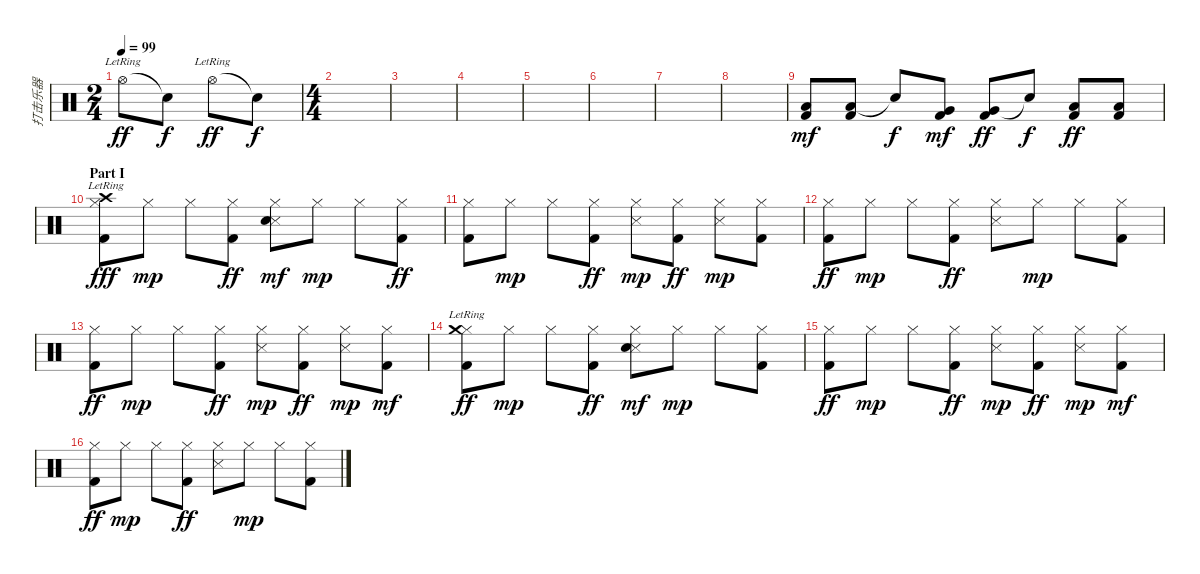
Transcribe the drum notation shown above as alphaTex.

\track ("打击乐器" "打击乐器") {instrument percussion}
\staff {score}
\articulation defaults
\ts (2 4)
\tempo 99
\clef neutral
\ks c "Hi-Hat (open)"{lr}.8{dy ff} "Snare (hit)"{t}.8{dy f} "Hi-Hat (open)"{lr}.8{dy ff} "Snare (hit)"{t}.8{dy f}
|
\ts (4 4)
|
|
|
|
|
|
|
("Low Floor Tom (hit)" "Kick (hit) 2").8{dy mf} ("Low Floor Tom (hit)" "Kick (hit) 2").8 "Snare (hit)"{t}.8{dy f} ("Very Low Tom (hit)" "Kick (hit) 2").8{dy mf} ("Very Low Tom (hit)" "Kick (hit) 2").8{dy ff} "Snare (hit)"{t}.8{dy f} ("Low Tom (hit)" "Kick (hit) 2").8{dy ff} ("Low Tom (hit)" "Kick (hit) 2").8 |
\section ("" "Part I")
("Hi-Hat (closed)" "Crash high (hit)"{lr} "Kick (hit) 2").8{dy fff} "Hi-Hat (closed)".8{dy mp} "Hi-Hat (closed)".8 ("Hi-Hat (closed)" "Kick (hit) 2").8{dy ff} ("Hi-Hat (closed)" "Snare (side stick) 3" "Electric Snare (hit)").8{dy mf} "Hi-Hat (closed)".8{dy mp} "Hi-Hat (closed)".8 ("Hi-Hat (closed)" "Kick (hit) 2").8{dy ff} |
("Hi-Hat (closed)" "Kick (hit) 2").8 "Hi-Hat (closed)".8{dy mp} "Hi-Hat (closed)".8 ("Hi-Hat (closed)" "Kick (hit) 2").8{dy ff} ("Hi-Hat (closed)" "Snare (side stick) 3").8{dy mp} ("Hi-Hat (closed)" "Kick (hit) 2").8{dy ff} ("Hi-Hat (closed)" "Snare (side stick) 3").8{dy mp} ("Hi-Hat (closed)" "Kick (hit) 2").8 |
("Hi-Hat (closed)" "Kick (hit) 2").8{dy ff} "Hi-Hat (closed)".8{dy mp} "Hi-Hat (closed)".8 ("Hi-Hat (closed)" "Kick (hit) 2").8{dy ff} ("Hi-Hat (closed)" "Snare (side stick) 3").8 "Hi-Hat (closed)".8{dy mp} "Hi-Hat (closed)".8 ("Hi-Hat (closed)" "Kick (hit) 2").8 |
("Hi-Hat (closed)" "Kick (hit) 2").8{dy ff} "Hi-Hat (closed)".8{dy mp} "Hi-Hat (closed)".8 ("Hi-Hat (closed)" "Kick (hit) 2").8{dy ff} ("Hi-Hat (closed)" "Snare (side stick) 3").8{dy mp} ("Hi-Hat (closed)" "Kick (hit) 2").8{dy ff} ("Hi-Hat (closed)" "Snare (side stick) 3").8{dy mp} ("Hi-Hat (closed)" "Kick (hit) 2").8{dy mf} |
("Hi-Hat (closed)" "Crash medium (hit)"{lr} "Kick (hit) 2").8{dy ff} "Hi-Hat (closed)".8{dy mp} "Hi-Hat (closed)".8 ("Hi-Hat (closed)" "Kick (hit) 2").8{dy ff} ("Hi-Hat (closed)" "Snare (side stick) 3" "Electric Snare (hit)").8{dy mf} "Hi-Hat (closed)".8{dy mp} "Hi-Hat (closed)".8 ("Hi-Hat (closed)" "Kick (hit) 2").8 |
("Hi-Hat (closed)" "Kick (hit) 2").8{dy ff} "Hi-Hat (closed)".8{dy mp} "Hi-Hat (closed)".8 ("Hi-Hat (closed)" "Kick (hit) 2").8{dy ff} ("Hi-Hat (closed)" "Snare (side stick) 3").8{dy mp} ("Hi-Hat (closed)" "Kick (hit) 2").8{dy ff} ("Hi-Hat (closed)" "Snare (side stick) 3").8{dy mp} ("Hi-Hat (closed)" "Kick (hit) 2").8{dy mf} |
("Hi-Hat (closed)" "Kick (hit) 2").8{dy ff} "Hi-Hat (closed)".8{dy mp} "Hi-Hat (closed)".8 ("Hi-Hat (closed)" "Kick (hit) 2").8{dy ff} ("Hi-Hat (closed)" "Snare (side stick) 3").8 "Hi-Hat (closed)".8{dy mp} "Hi-Hat (closed)".8 ("Hi-Hat (closed)" "Kick (hit) 2").8
